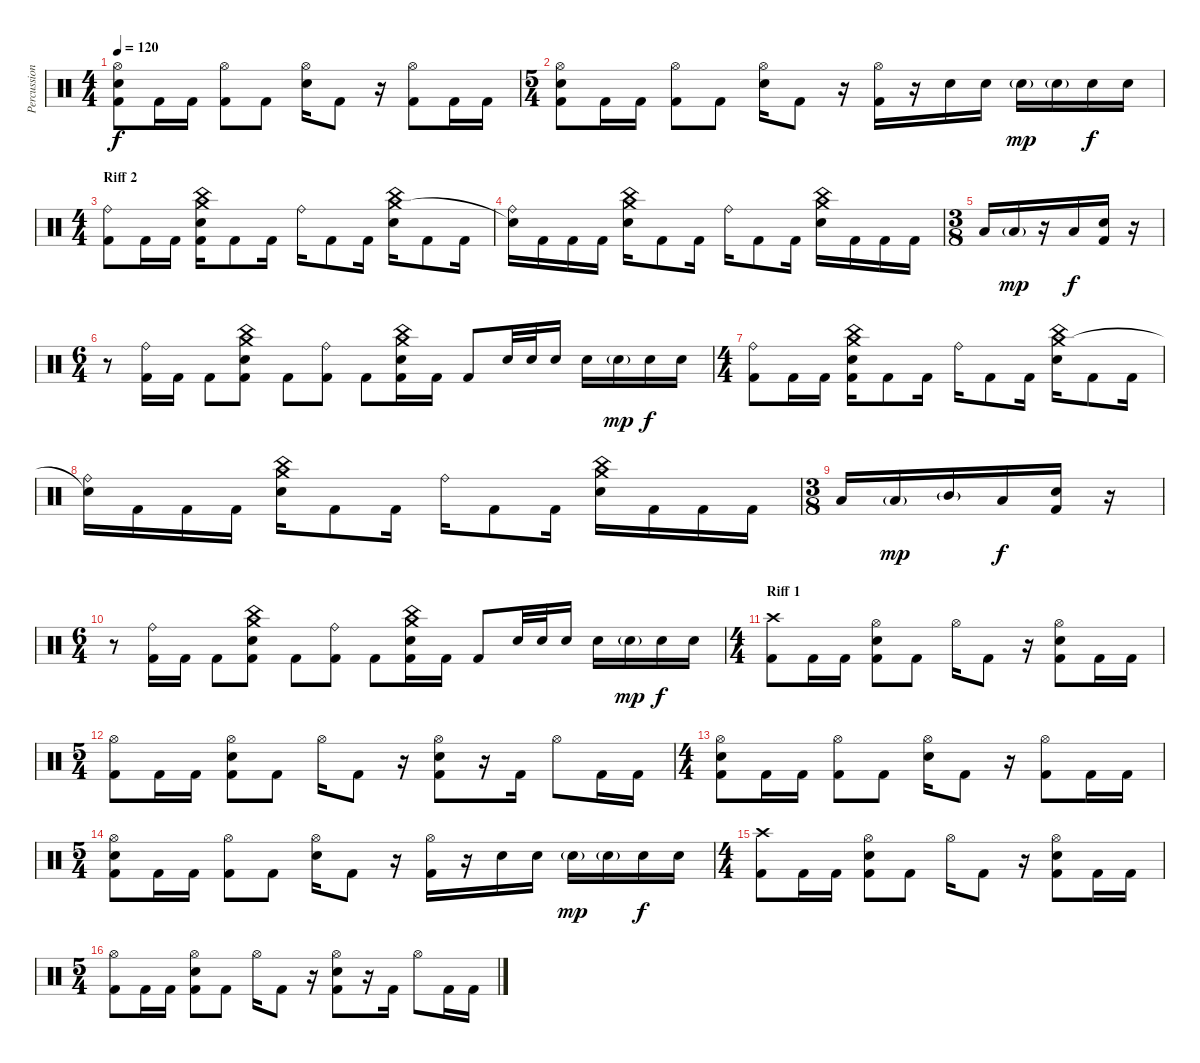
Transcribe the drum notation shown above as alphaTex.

\track ("Percussion" "Percussion") {instrument percussion}
\staff {score}
\articulation defaults
\ts (4 4)
\tempo 120
\clef neutral
\ks c
("Hi-Hat (open)" "Electric Snare (hit)" "Kick (hit) 2").8{dy f} "Kick (hit) 2".16 "Kick (hit) 2".16 ("Hi-Hat (open)" "Kick (hit) 2").8 "Kick (hit) 2".8 ("Hi-Hat (open)" "Electric Snare (hit)").16 "Kick (hit) 2".8 r.16 ("Hi-Hat (open)" "Kick (hit) 2").8 "Kick (hit) 2".16 "Kick (hit) 2".16 |
\ts (5 4)
("Hi-Hat (open)" "Electric Snare (hit)" "Kick (hit) 2").8 "Kick (hit) 2".16 "Kick (hit) 2".16 ("Hi-Hat (open)" "Kick (hit) 2").8 "Kick (hit) 2".8 ("Hi-Hat (open)" "Electric Snare (hit)").16 "Kick (hit) 2".8 r.16 ("Hi-Hat (open)" "Kick (hit) 2").16 r.16 "Electric Snare (hit)".16 "Electric Snare (hit)".16 "Electric Snare (hit)"{g}.16{dy mp} "Electric Snare (hit)"{g}.16 "Electric Snare (hit)".16{dy f} "Electric Snare (hit)".16 |
\ts (4 4)
\section ("" "Riff 2")
("Ride (bell)" "Kick (hit) 2").8 "Kick (hit) 2".16 "Kick (hit) 2".16 ("China (hit)" "Crash medium (hit)" "Electric Snare (hit)" "Kick (hit) 2").16 "Kick (hit) 2".8 "Kick (hit) 2".16 "Ride (bell)".16 "Kick (hit) 2".8 "Kick (hit) 2".16 ("China (hit)" "Crash medium (hit)" "Electric Snare (hit)").16 "Kick (hit) 2".8 "Kick (hit) 2".16 |
("Ride (bell)" "Snare (hit)"{t}).16 "Kick (hit) 2".16 "Kick (hit) 2".16 "Kick (hit) 2".16 ("China (hit)" "Crash medium (hit)" "Electric Snare (hit)").16 "Kick (hit) 2".8 "Kick (hit) 2".16 "Ride (bell)".16 "Kick (hit) 2".8 "Kick (hit) 2".16 ("China (hit)" "Crash medium (hit)" "Electric Snare (hit)").16 "Kick (hit) 2".16 "Kick (hit) 2".16 "Kick (hit) 2".16 |
\ts (3 8)
"Low Tom (hit)".16 "Low Floor Tom (hit)"{g}.16{dy mp} r.16 "Low Tom (hit)".16{dy f} ("Electric Snare (hit)" "Kick (hit) 2").16 r.16 |
\ts (6 4)
r.8 ("Ride (bell)" "Kick (hit) 2").16 "Kick (hit) 2".16 "Kick (hit) 2".8 ("China (hit)" "Crash medium (hit)" "Electric Snare (hit)" "Kick (hit) 2").8 "Kick (hit) 2".8 ("Ride (bell)" "Kick (hit) 2").8 "Kick (hit) 2".8 ("China (hit)" "Crash medium (hit)" "Electric Snare (hit)" "Kick (hit) 2").16 "Kick (hit) 2".16 "Kick (hit) 2".8 "Electric Snare (hit)".32 "Electric Snare (hit)".32 "Electric Snare (hit)".16 "Electric Snare (hit)".16 "Electric Snare (hit)"{g}.16{dy mp} "Electric Snare (hit)".16{dy f} "Electric Snare (hit)".16 |
\ts (4 4)
("Ride (bell)" "Kick (hit) 2").8 "Kick (hit) 2".16 "Kick (hit) 2".16 ("China (hit)" "Crash medium (hit)" "Electric Snare (hit)" "Kick (hit) 2").16 "Kick (hit) 2".8 "Kick (hit) 2".16 "Ride (bell)".16 "Kick (hit) 2".8 "Kick (hit) 2".16 ("China (hit)" "Crash medium (hit)" "Electric Snare (hit)").16 "Kick (hit) 2".8 "Kick (hit) 2".16 |
("Ride (bell)" "Snare (hit)"{t}).16 "Kick (hit) 2".16 "Kick (hit) 2".16 "Kick (hit) 2".16 ("China (hit)" "Crash medium (hit)" "Electric Snare (hit)").16 "Kick (hit) 2".8 "Kick (hit) 2".16 "Ride (bell)".16 "Kick (hit) 2".8 "Kick (hit) 2".16 ("China (hit)" "Crash medium (hit)" "Electric Snare (hit)").16 "Kick (hit) 2".16 "Kick (hit) 2".16 "Kick (hit) 2".16 |
\ts (3 8)
"Low Tom (hit)".16 "Low Floor Tom (hit)"{g}.16{dy mp} "Mid Tom (hit)"{g}.16 "Low Tom (hit)".16{dy f} ("Electric Snare (hit)" "Kick (hit) 2").16 r.16 |
\ts (6 4)
r.8 ("Ride (bell)" "Kick (hit) 2").16 "Kick (hit) 2".16 "Kick (hit) 2".8 ("China (hit)" "Crash medium (hit)" "Electric Snare (hit)" "Kick (hit) 2").8 "Kick (hit) 2".8 ("Ride (bell)" "Kick (hit) 2").8 "Kick (hit) 2".8 ("China (hit)" "Crash medium (hit)" "Electric Snare (hit)" "Kick (hit) 2").16 "Kick (hit) 2".16 "Kick (hit) 2".8 "Electric Snare (hit)".32 "Electric Snare (hit)".32 "Electric Snare (hit)".16 "Electric Snare (hit)".16 "Electric Snare (hit)"{g}.16{dy mp} "Electric Snare (hit)".16{dy f} "Electric Snare (hit)".16 |
\ts (4 4)
\section ("" "Riff 1")
("Crash high (hit)" "Kick (hit) 2").8 "Kick (hit) 2".16 "Kick (hit) 2".16 ("Hi-Hat (open)" "Electric Snare (hit)" "Kick (hit) 2").8 "Kick (hit) 2".8 "Hi-Hat (open)".16 "Kick (hit) 2".8 r.16 ("Hi-Hat (open)" "Electric Snare (hit)" "Kick (hit) 2").8 "Kick (hit) 2".16 "Kick (hit) 2".16 |
\ts (5 4)
("Hi-Hat (open)" "Kick (hit) 2").8 "Kick (hit) 2".16 "Kick (hit) 2".16 ("Hi-Hat (open)" "Electric Snare (hit)" "Kick (hit) 2").8 "Kick (hit) 2".8 "Hi-Hat (open)".16 "Kick (hit) 2".8 r.16 ("Hi-Hat (open)" "Electric Snare (hit)" "Kick (hit) 2").8 r.16 "Kick (hit) 2".16 "Hi-Hat (open)".8 "Kick (hit) 2".16 "Kick (hit) 2".16 |
\ts (4 4)
("Hi-Hat (open)" "Electric Snare (hit)" "Kick (hit) 2").8 "Kick (hit) 2".16 "Kick (hit) 2".16 ("Hi-Hat (open)" "Kick (hit) 2").8 "Kick (hit) 2".8 ("Hi-Hat (open)" "Electric Snare (hit)").16 "Kick (hit) 2".8 r.16 ("Hi-Hat (open)" "Kick (hit) 2").8 "Kick (hit) 2".16 "Kick (hit) 2".16 |
\ts (5 4)
("Hi-Hat (open)" "Electric Snare (hit)" "Kick (hit) 2").8 "Kick (hit) 2".16 "Kick (hit) 2".16 ("Hi-Hat (open)" "Kick (hit) 2").8 "Kick (hit) 2".8 ("Hi-Hat (open)" "Electric Snare (hit)").16 "Kick (hit) 2".8 r.16 ("Hi-Hat (open)" "Kick (hit) 2").16 r.16 "Electric Snare (hit)".16 "Electric Snare (hit)".16 "Electric Snare (hit)"{g}.16{dy mp} "Electric Snare (hit)"{g}.16 "Electric Snare (hit)".16{dy f} "Electric Snare (hit)".16 |
\ts (4 4)
("Crash high (hit)" "Kick (hit) 2").8 "Kick (hit) 2".16 "Kick (hit) 2".16 ("Hi-Hat (open)" "Electric Snare (hit)" "Kick (hit) 2").8 "Kick (hit) 2".8 "Hi-Hat (open)".16 "Kick (hit) 2".8 r.16 ("Hi-Hat (open)" "Electric Snare (hit)" "Kick (hit) 2").8 "Kick (hit) 2".16 "Kick (hit) 2".16 |
\ts (5 4)
("Hi-Hat (open)" "Kick (hit) 2").8 "Kick (hit) 2".16 "Kick (hit) 2".16 ("Hi-Hat (open)" "Electric Snare (hit)" "Kick (hit) 2").8 "Kick (hit) 2".8 "Hi-Hat (open)".16 "Kick (hit) 2".8 r.16 ("Hi-Hat (open)" "Electric Snare (hit)" "Kick (hit) 2").8 r.16 "Kick (hit) 2".16 "Hi-Hat (open)".8 "Kick (hit) 2".16 "Kick (hit) 2".16
